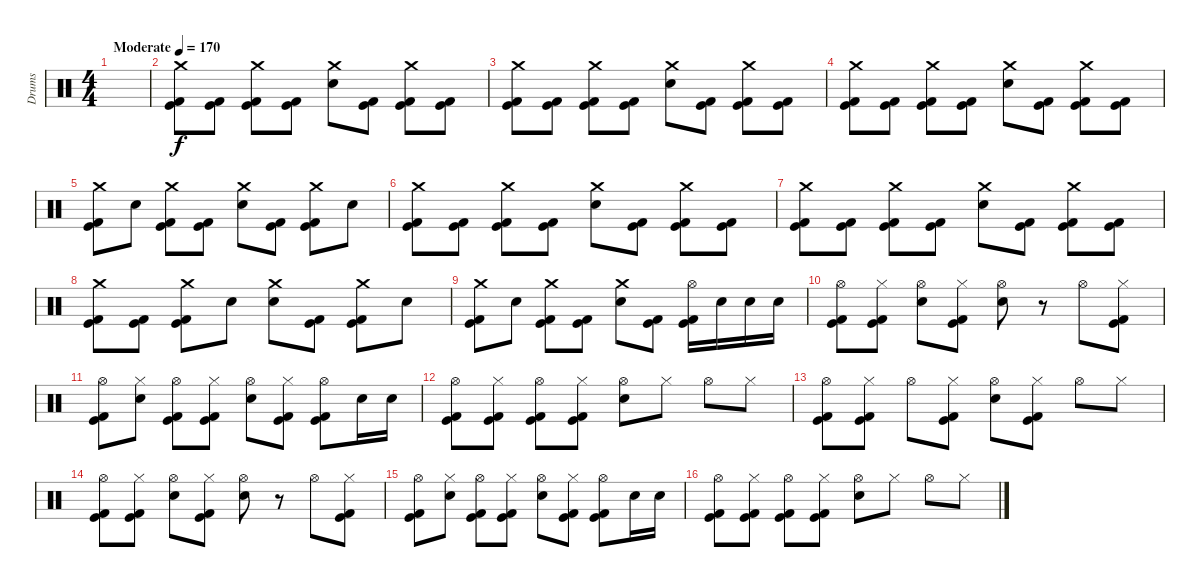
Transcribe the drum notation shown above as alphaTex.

\track ("Drums" "Drums") {instrument percussion}
\staff {score}
\articulation defaults
\ts (4 4)
\tempo (170 "Moderate")
\clef neutral
\ks c
|
("Kick (hit) 2" "Kick (hit)" "Crash medium (hit)").8 ("Kick (hit) 2" "Kick (hit)").8 ("Kick (hit) 2" "Kick (hit)" "Crash medium (hit)").8 ("Kick (hit) 2" "Kick (hit)").8 ("Snare (hit) 2" "Crash medium (hit)").8 ("Kick (hit) 2" "Kick (hit)").8 ("Kick (hit) 2" "Kick (hit)" "Crash medium (hit)").8 ("Kick (hit) 2" "Kick (hit)").8 |
("Kick (hit) 2" "Kick (hit)" "Crash medium (hit)").8 ("Kick (hit) 2" "Kick (hit)").8 ("Kick (hit) 2" "Kick (hit)" "Crash medium (hit)").8 ("Kick (hit) 2" "Kick (hit)").8 ("Snare (hit) 2" "Crash medium (hit)").8 ("Kick (hit) 2" "Kick (hit)").8 ("Kick (hit) 2" "Kick (hit)" "Crash medium (hit)").8 ("Kick (hit) 2" "Kick (hit)").8 |
("Kick (hit) 2" "Kick (hit)" "Crash medium (hit)").8 ("Kick (hit) 2" "Kick (hit)").8 ("Kick (hit) 2" "Kick (hit)" "Crash medium (hit)").8 ("Kick (hit) 2" "Kick (hit)").8 ("Snare (hit) 2" "Crash medium (hit)").8 ("Kick (hit) 2" "Kick (hit)").8 ("Kick (hit) 2" "Kick (hit)" "Crash medium (hit)").8 ("Kick (hit) 2" "Kick (hit)").8 |
("Kick (hit) 2" "Kick (hit)" "Crash medium (hit)").8 "Snare (hit) 2".8 ("Kick (hit) 2" "Crash medium (hit)" "Kick (hit)").8 ("Kick (hit) 2" "Kick (hit)").8 ("Snare (hit) 2" "Crash medium (hit)").8 ("Kick (hit) 2" "Kick (hit)").8 ("Kick (hit) 2" "Kick (hit)" "Crash medium (hit)").8 "Snare (hit) 2".8 |
("Kick (hit) 2" "Kick (hit)" "Crash medium (hit)").8 ("Kick (hit) 2" "Kick (hit)").8 ("Kick (hit) 2" "Kick (hit)" "Crash medium (hit)").8 ("Kick (hit) 2" "Kick (hit)").8 ("Snare (hit) 2" "Crash medium (hit)").8 ("Kick (hit) 2" "Kick (hit)").8 ("Kick (hit) 2" "Kick (hit)" "Crash medium (hit)").8 ("Kick (hit) 2" "Kick (hit)").8 |
("Kick (hit) 2" "Kick (hit)" "Crash medium (hit)").8 ("Kick (hit) 2" "Kick (hit)").8 ("Kick (hit) 2" "Kick (hit)" "Crash medium (hit)").8 ("Kick (hit) 2" "Kick (hit)").8 ("Snare (hit) 2" "Crash medium (hit)").8 ("Kick (hit) 2" "Kick (hit)").8 ("Kick (hit) 2" "Kick (hit)" "Crash medium (hit)").8 ("Kick (hit) 2" "Kick (hit)").8 |
("Kick (hit) 2" "Kick (hit)" "Crash medium (hit)").8 ("Kick (hit) 2" "Kick (hit)").8 ("Kick (hit) 2" "Kick (hit)" "Crash medium (hit)").8 "Snare (hit) 2".8 ("Snare (hit) 2" "Crash medium (hit)").8 ("Kick (hit) 2" "Kick (hit)").8 ("Kick (hit) 2" "Kick (hit)" "Crash medium (hit)").8 "Snare (hit) 2".8 |
("Kick (hit) 2" "Kick (hit)" "Crash medium (hit)").8 "Snare (hit) 2".8 ("Kick (hit) 2" "Kick (hit)" "Crash medium (hit)").8 ("Kick (hit) 2" "Kick (hit)").8 ("Snare (hit) 2" "Crash medium (hit)").8 ("Kick (hit) 2" "Kick (hit)").8 ("Kick (hit) 2" "Kick (hit)" "Hi-Hat (open)").16 "Snare (hit) 2".16 "Snare (hit) 2".16 "Snare (hit) 2".16 |
("Kick (hit) 2" "Kick (hit)" "Hi-Hat (open)").8 ("Kick (hit) 2" "Kick (hit)" "Hi-Hat (closed)").8 ("Snare (hit) 2" "Hi-Hat (open)").8 ("Kick (hit) 2" "Kick (hit)" "Hi-Hat (closed)").8 ("Snare (hit) 2" "Hi-Hat (open)").8 r.8 "Hi-Hat (open)".8 ("Kick (hit) 2" "Kick (hit)" "Hi-Hat (closed)").8 |
("Kick (hit) 2" "Kick (hit)" "Hi-Hat (open)").8 ("Snare (hit) 2" "Hi-Hat (closed)").8 ("Kick (hit) 2" "Kick (hit)" "Hi-Hat (open)").8 ("Kick (hit) 2" "Kick (hit)" "Hi-Hat (closed)").8 ("Snare (hit) 2" "Hi-Hat (open)").8 ("Kick (hit) 2" "Kick (hit)" "Hi-Hat (closed)").8 ("Kick (hit) 2" "Kick (hit)" "Hi-Hat (open)").8 "Snare (hit) 2".16 "Snare (hit) 2".16 |
("Kick (hit) 2" "Kick (hit)" "Hi-Hat (open)").8 ("Kick (hit) 2" "Kick (hit)" "Hi-Hat (closed)").8 ("Kick (hit) 2" "Kick (hit)" "Hi-Hat (open)").8 ("Kick (hit) 2" "Kick (hit)" "Hi-Hat (closed)").8 ("Hi-Hat (open)" "Snare (hit) 2").8 "Hi-Hat (closed)".8 "Hi-Hat (open)".8 "Hi-Hat (closed)".8 |
("Kick (hit) 2" "Kick (hit)" "Hi-Hat (open)").8 ("Kick (hit) 2" "Kick (hit)" "Hi-Hat (closed)").8 "Hi-Hat (open)".8 ("Kick (hit) 2" "Kick (hit)" "Hi-Hat (closed)").8 ("Snare (hit) 2" "Hi-Hat (open)").8 ("Kick (hit) 2" "Kick (hit)" "Hi-Hat (closed)").8 "Hi-Hat (open)".8 "Hi-Hat (closed)".8 |
("Kick (hit) 2" "Kick (hit)" "Hi-Hat (open)").8 ("Kick (hit) 2" "Kick (hit)" "Hi-Hat (closed)").8 ("Snare (hit) 2" "Hi-Hat (open)").8 ("Kick (hit) 2" "Kick (hit)" "Hi-Hat (closed)").8 ("Snare (hit) 2" "Hi-Hat (open)").8 r.8 "Hi-Hat (open)".8 ("Kick (hit) 2" "Kick (hit)" "Hi-Hat (closed)").8 |
("Kick (hit) 2" "Kick (hit)" "Hi-Hat (open)").8 ("Snare (hit) 2" "Hi-Hat (closed)").8 ("Kick (hit) 2" "Kick (hit)" "Hi-Hat (open)").8 ("Kick (hit) 2" "Kick (hit)" "Hi-Hat (closed)").8 ("Snare (hit) 2" "Hi-Hat (open)").8 ("Kick (hit) 2" "Kick (hit)" "Hi-Hat (closed)").8 ("Kick (hit) 2" "Kick (hit)" "Hi-Hat (open)").8 "Snare (hit) 2".16 "Snare (hit) 2".16 |
("Kick (hit) 2" "Kick (hit)" "Hi-Hat (open)").8 ("Kick (hit) 2" "Kick (hit)" "Hi-Hat (closed)").8 ("Kick (hit) 2" "Kick (hit)" "Hi-Hat (open)").8 ("Kick (hit) 2" "Kick (hit)" "Hi-Hat (closed)").8 ("Hi-Hat (open)" "Snare (hit) 2").8 "Hi-Hat (closed)".8 "Hi-Hat (open)".8 "Hi-Hat (closed)".8
